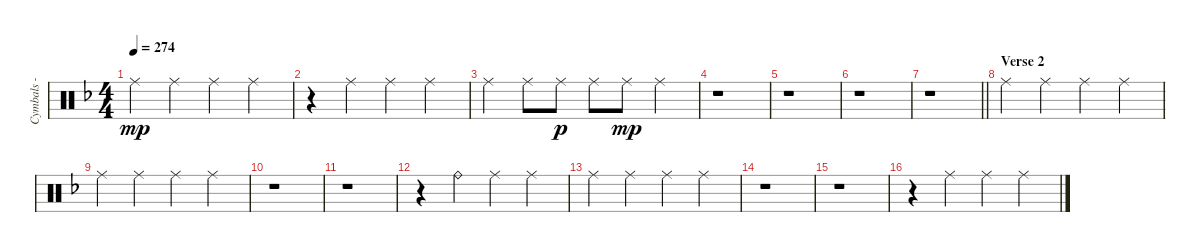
\track ("Cymbals - ride" "Cymbals - ") {instrument percussion}
\staff {score}
\articulation defaults
\ts (4 4)
\tempo 274
\clef neutral
\ks dminor "Ride (middle)".4{dy mp} "Ride (middle)".4 "Ride (middle)".4 "Ride (middle)".4
|
r.4 "Ride (middle)".4 "Ride (middle)".4 "Ride (middle)".4 |
"Ride (middle)".4 "Ride (middle)".8 "Ride (middle)".8{dy p} "Ride (middle)".8 "Ride (middle)".8{dy mp} "Ride (middle)".4 |
r.1 |
r.1 |
r.1 |
\barLineRight lightlight
r.1 |
\section ("" "Verse 2")
"Ride (middle)".4 "Ride (middle)".4 "Ride (middle)".4 "Ride (middle)".4 |
"Ride (middle)".4 "Ride (middle)".4 "Ride (middle)".4 "Ride (middle)".4 |
r.1 |
r.1 |
r.4 "Ride (bell)".4 "Ride (middle)".4 "Ride (middle)".4 |
"Ride (middle)".4 "Ride (middle)".4 "Ride (middle)".4 "Ride (middle)".4 |
r.1 |
r.1 |
r.4 "Ride (middle)".4 "Ride (middle)".4 "Ride (middle)".4
